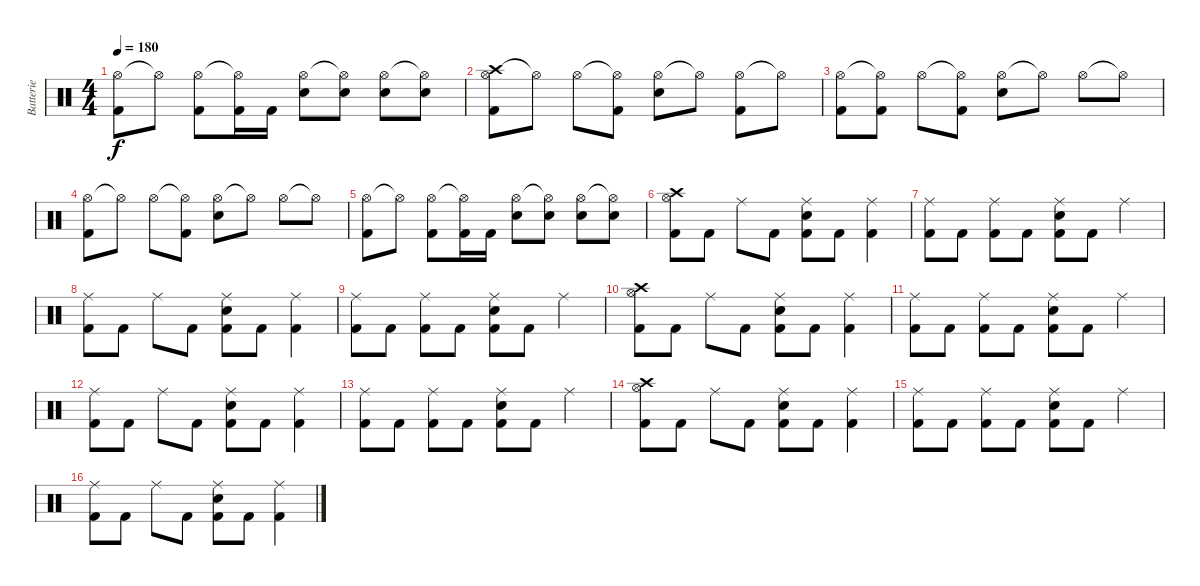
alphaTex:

\track ("Batterie" "Batterie") {instrument percussion}
\staff {score}
\articulation defaults
\ts (4 4)
\tempo 180
\clef neutral
\ks c
("Hi-Hat (open)" "Kick (hit) 2").8{dy f} "Hi-Hat (open)"{t}.8 ("Hi-Hat (open)" "Kick (hit) 2").8 ("Hi-Hat (open)"{t} "Kick (hit) 2").16 "Kick (hit) 2".16 ("Hi-Hat (open)" "Electric Snare (hit)").8 ("Hi-Hat (open)"{t} "Electric Snare (hit)").8 ("Hi-Hat (open)" "Electric Snare (hit)").8 ("Hi-Hat (open)"{t} "Electric Snare (hit)").8 |
("Crash high (hit)" "Hi-Hat (open)" "Kick (hit) 2").8 "Hi-Hat (open)"{t}.8 "Hi-Hat (open)".8 ("Hi-Hat (open)"{t} "Kick (hit) 2").8 ("Hi-Hat (open)" "Electric Snare (hit)").8 "Hi-Hat (open)"{t}.8 ("Hi-Hat (open)" "Kick (hit) 2").8 "Hi-Hat (open)"{t}.8 |
("Hi-Hat (open)" "Kick (hit) 2").8 ("Hi-Hat (open)"{t} "Kick (hit) 2").8 "Hi-Hat (open)".8 ("Hi-Hat (open)"{t} "Kick (hit) 2").8 ("Hi-Hat (open)" "Electric Snare (hit)").8 "Hi-Hat (open)"{t}.8 "Hi-Hat (open)".8 "Hi-Hat (open)"{t}.8 |
("Hi-Hat (open)" "Kick (hit) 2").8 "Hi-Hat (open)"{t}.8 "Hi-Hat (open)".8 ("Hi-Hat (open)"{t} "Kick (hit) 2").8 ("Hi-Hat (open)" "Electric Snare (hit)").8 "Hi-Hat (open)"{t}.8 "Hi-Hat (open)".8 "Hi-Hat (open)"{t}.8 |
("Hi-Hat (open)" "Kick (hit) 2").8 "Hi-Hat (open)"{t}.8 ("Hi-Hat (open)" "Kick (hit) 2").8 ("Hi-Hat (open)"{t} "Kick (hit) 2").16 "Kick (hit) 2".16 ("Hi-Hat (open)" "Electric Snare (hit)").8 ("Hi-Hat (open)"{t} "Electric Snare (hit)").8 ("Hi-Hat (open)" "Electric Snare (hit)").8 ("Hi-Hat (open)"{t} "Electric Snare (hit)").8 |
("Crash high (hit)" "Hi-Hat (open)" "Kick (hit) 2").8 "Kick (hit) 2".8 "Ride (middle)".8 "Kick (hit) 2".8 ("Ride (middle)" "Electric Snare (hit)" "Kick (hit) 2").8 "Kick (hit) 2".8 ("Ride (middle)" "Kick (hit) 2").4 |
("Ride (middle)" "Kick (hit) 2").8 "Kick (hit) 2".8 ("Ride (middle)" "Kick (hit) 2").8 "Kick (hit) 2".8 ("Ride (middle)" "Electric Snare (hit)" "Kick (hit) 2").8 "Kick (hit) 2".8 "Ride (middle)".4 |
("Ride (middle)" "Kick (hit) 2").8 "Kick (hit) 2".8 "Ride (middle)".8 "Kick (hit) 2".8 ("Ride (middle)" "Electric Snare (hit)" "Kick (hit) 2").8 "Kick (hit) 2".8 ("Ride (middle)" "Kick (hit) 2").4 |
("Ride (middle)" "Kick (hit) 2").8 "Kick (hit) 2".8 ("Ride (middle)" "Kick (hit) 2").8 "Kick (hit) 2".8 ("Ride (middle)" "Electric Snare (hit)" "Kick (hit) 2").8 "Kick (hit) 2".8 "Ride (middle)".4 |
("Crash high (hit)" "Hi-Hat (open)" "Kick (hit) 2").8 "Kick (hit) 2".8 "Ride (middle)".8 "Kick (hit) 2".8 ("Ride (middle)" "Electric Snare (hit)" "Kick (hit) 2").8 "Kick (hit) 2".8 ("Ride (middle)" "Kick (hit) 2").4 |
("Ride (middle)" "Kick (hit) 2").8 "Kick (hit) 2".8 ("Ride (middle)" "Kick (hit) 2").8 "Kick (hit) 2".8 ("Ride (middle)" "Electric Snare (hit)" "Kick (hit) 2").8 "Kick (hit) 2".8 "Ride (middle)".4 |
("Ride (middle)" "Kick (hit) 2").8 "Kick (hit) 2".8 "Ride (middle)".8 "Kick (hit) 2".8 ("Ride (middle)" "Electric Snare (hit)" "Kick (hit) 2").8 "Kick (hit) 2".8 ("Ride (middle)" "Kick (hit) 2").4 |
("Ride (middle)" "Kick (hit) 2").8 "Kick (hit) 2".8 ("Ride (middle)" "Kick (hit) 2").8 "Kick (hit) 2".8 ("Ride (middle)" "Electric Snare (hit)" "Kick (hit) 2").8 "Kick (hit) 2".8 "Ride (middle)".4 |
("Crash high (hit)" "Hi-Hat (open)" "Kick (hit) 2").8 "Kick (hit) 2".8 "Ride (middle)".8 "Kick (hit) 2".8 ("Ride (middle)" "Electric Snare (hit)" "Kick (hit) 2").8 "Kick (hit) 2".8 ("Ride (middle)" "Kick (hit) 2").4 |
("Ride (middle)" "Kick (hit) 2").8 "Kick (hit) 2".8 ("Ride (middle)" "Kick (hit) 2").8 "Kick (hit) 2".8 ("Ride (middle)" "Electric Snare (hit)" "Kick (hit) 2").8 "Kick (hit) 2".8 "Ride (middle)".4 |
("Ride (middle)" "Kick (hit) 2").8 "Kick (hit) 2".8 "Ride (middle)".8 "Kick (hit) 2".8 ("Ride (middle)" "Electric Snare (hit)" "Kick (hit) 2").8 "Kick (hit) 2".8 ("Ride (middle)" "Kick (hit) 2").4
